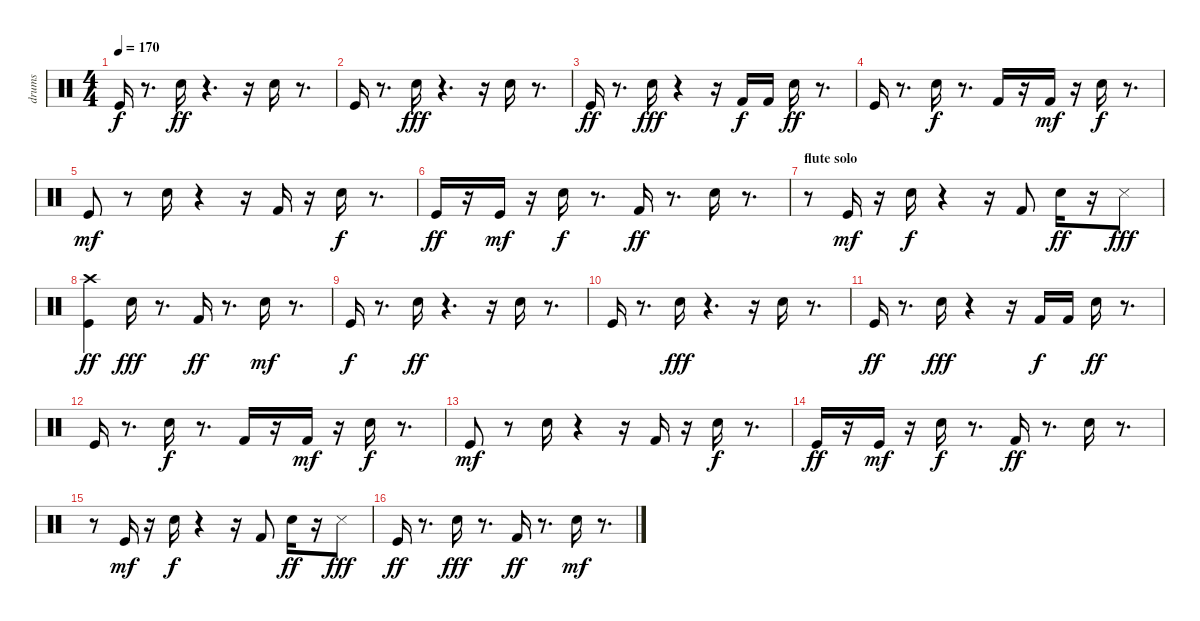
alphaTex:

\track ("drums" "drums") {instrument percussion}
\staff {score}
\articulation defaults
\ts (4 4)
\tempo 170
\clef neutral
\ks c "Kick (hit)".16{dy f}
r.8{d} "Snare (hit) 2".16{dy ff} r.4{d} r.16 "Electric Snare (hit)".16 r.8{d} |
"Kick (hit)".16 r.8{d} "Snare (hit) 2".16{dy fff} r.4{d} r.16 "Electric Snare (hit)".16 r.8{d} |
"Kick (hit)".16{dy ff} r.8{d} "Snare (hit) 2".16{dy fff} r.4 r.16 "Kick (hit) 2".16{dy f} "Kick (hit) 2".16 "Electric Snare (hit)".16{dy ff} r.8{d} |
"Kick (hit)".16 r.8{d} "Snare (hit) 2".16{dy f} r.8{d} "Kick (hit) 2".16 r.16 "Kick (hit) 2".16{dy mf} r.16 "Snare (hit) 2".16{dy f} r.8{d} |
"Kick (hit)".8{dy mf} r.8 "Snare (hit) 2".16 r.4 r.16 "Kick (hit) 2".16 r.16 "Electric Snare (hit)".16{dy f} r.8{d} |
"Kick (hit)".16{dy ff} r.16 "Kick (hit)".16{dy mf} r.16 "Snare (hit) 2".16{dy f} r.8{d} "Kick (hit) 2".16{dy ff} r.8{d} "Electric Snare (hit)".16 r.8{d} |
\section ("" "flute solo")
r.8 "Kick (hit)".16{dy mf} r.16 "Snare (hit) 2".16{dy f} r.4 r.16 "Kick (hit) 2".8 "Electric Snare (hit)".16{dy ff} r.16 "Snare (side stick) 3".8{dy fff} |
("Kick (hit)" "Crash high (hit)").4{dy ff} "Snare (hit) 2".16{dy fff} r.8{d} "Kick (hit) 2".16{dy ff} r.8{d} "Electric Snare (hit)".16{dy mf} r.8{d} |
"Kick (hit)".16{dy f} r.8{d} "Snare (hit) 2".16{dy ff} r.4{d} r.16 "Electric Snare (hit)".16 r.8{d} |
"Kick (hit)".16 r.8{d} "Snare (hit) 2".16{dy fff} r.4{d} r.16 "Electric Snare (hit)".16 r.8{d} |
"Kick (hit)".16{dy ff} r.8{d} "Snare (hit) 2".16{dy fff} r.4 r.16 "Kick (hit) 2".16{dy f} "Kick (hit) 2".16 "Electric Snare (hit)".16{dy ff} r.8{d} |
"Kick (hit)".16 r.8{d} "Snare (hit) 2".16{dy f} r.8{d} "Kick (hit) 2".16 r.16 "Kick (hit) 2".16{dy mf} r.16 "Snare (hit) 2".16{dy f} r.8{d} |
"Kick (hit)".8{dy mf} r.8 "Snare (hit) 2".16 r.4 r.16 "Kick (hit) 2".16 r.16 "Electric Snare (hit)".16{dy f} r.8{d} |
"Kick (hit)".16{dy ff} r.16 "Kick (hit)".16{dy mf} r.16 "Snare (hit) 2".16{dy f} r.8{d} "Kick (hit) 2".16{dy ff} r.8{d} "Electric Snare (hit)".16 r.8{d} |
r.8 "Kick (hit)".16{dy mf} r.16 "Snare (hit) 2".16{dy f} r.4 r.16 "Kick (hit) 2".8 "Electric Snare (hit)".16{dy ff} r.16 "Snare (side stick) 3".8{dy fff} |
"Kick (hit)".16{dy ff} r.8{d} "Snare (hit) 2".16{dy fff} r.8{d} "Kick (hit) 2".16{dy ff} r.8{d} "Electric Snare (hit)".16{dy mf} r.8{d}
